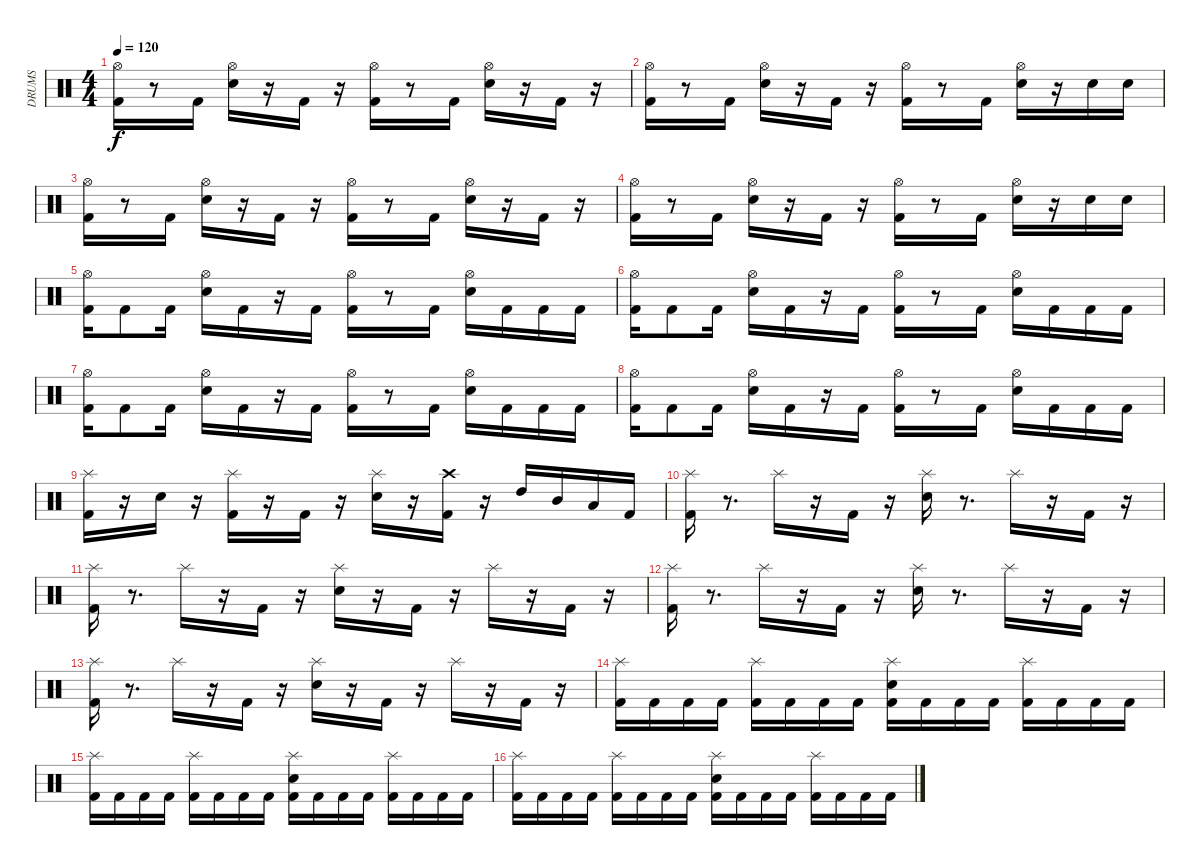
\track ("DRUMS" "DRUMS") {instrument percussion}
\staff {score}
\articulation defaults
\ts (4 4)
\tempo 120
\clef neutral
\ks c
("Hi-Hat (open)" "Kick (hit) 2").16{dy f} r.8 "Kick (hit) 2".16 ("Hi-Hat (open)" "Electric Snare (hit)").16 r.16 "Kick (hit) 2".16 r.16 ("Hi-Hat (open)" "Kick (hit) 2").16 r.8 "Kick (hit) 2".16 ("Hi-Hat (open)" "Electric Snare (hit)").16 r.16 "Kick (hit) 2".16 r.16 |
("Hi-Hat (open)" "Kick (hit) 2").16 r.8 "Kick (hit) 2".16 ("Hi-Hat (open)" "Electric Snare (hit)").16 r.16 "Kick (hit) 2".16 r.16 ("Hi-Hat (open)" "Kick (hit) 2").16 r.8 "Kick (hit) 2".16 ("Hi-Hat (open)" "Electric Snare (hit)").16 r.16 "Electric Snare (hit)".16 "Electric Snare (hit)".16 |
("Hi-Hat (open)" "Kick (hit) 2").16 r.8 "Kick (hit) 2".16 ("Hi-Hat (open)" "Electric Snare (hit)").16 r.16 "Kick (hit) 2".16 r.16 ("Hi-Hat (open)" "Kick (hit) 2").16 r.8 "Kick (hit) 2".16 ("Hi-Hat (open)" "Electric Snare (hit)").16 r.16 "Kick (hit) 2".16 r.16 |
("Hi-Hat (open)" "Kick (hit) 2").16 r.8 "Kick (hit) 2".16 ("Hi-Hat (open)" "Electric Snare (hit)").16 r.16 "Kick (hit) 2".16 r.16 ("Hi-Hat (open)" "Kick (hit) 2").16 r.8 "Kick (hit) 2".16 ("Hi-Hat (open)" "Electric Snare (hit)").16 r.16 "Electric Snare (hit)".16 "Electric Snare (hit)".16 |
("Hi-Hat (open)" "Kick (hit) 2").16 "Kick (hit) 2".8 "Kick (hit) 2".16 ("Hi-Hat (open)" "Electric Snare (hit)").16 "Kick (hit) 2".16 r.16 "Kick (hit) 2".16 ("Hi-Hat (open)" "Kick (hit) 2").16 r.8 "Kick (hit) 2".16 ("Hi-Hat (open)" "Electric Snare (hit)").16 "Kick (hit) 2".16 "Kick (hit) 2".16 "Kick (hit) 2".16 |
("Hi-Hat (open)" "Kick (hit) 2").16 "Kick (hit) 2".8 "Kick (hit) 2".16 ("Hi-Hat (open)" "Electric Snare (hit)").16 "Kick (hit) 2".16 r.16 "Kick (hit) 2".16 ("Hi-Hat (open)" "Kick (hit) 2").16 r.8 "Kick (hit) 2".16 ("Hi-Hat (open)" "Electric Snare (hit)").16 "Kick (hit) 2".16 "Kick (hit) 2".16 "Kick (hit) 2".16 |
("Hi-Hat (open)" "Kick (hit) 2").16 "Kick (hit) 2".8 "Kick (hit) 2".16 ("Hi-Hat (open)" "Electric Snare (hit)").16 "Kick (hit) 2".16 r.16 "Kick (hit) 2".16 ("Hi-Hat (open)" "Kick (hit) 2").16 r.8 "Kick (hit) 2".16 ("Hi-Hat (open)" "Electric Snare (hit)").16 "Kick (hit) 2".16 "Kick (hit) 2".16 "Kick (hit) 2".16 |
("Hi-Hat (open)" "Kick (hit) 2").16 "Kick (hit) 2".8 "Kick (hit) 2".16 ("Hi-Hat (open)" "Electric Snare (hit)").16 "Kick (hit) 2".16 r.16 "Kick (hit) 2".16 ("Hi-Hat (open)" "Kick (hit) 2").16 r.8 "Kick (hit) 2".16 ("Hi-Hat (open)" "Electric Snare (hit)").16 "Kick (hit) 2".16 "Kick (hit) 2".16 "Kick (hit) 2".16 |
("Splash (hit)" "Kick (hit) 2").16 r.16 "Electric Snare (hit)".16 r.16 ("Splash (hit)" "Kick (hit) 2").16 r.16 "Kick (hit) 2".16 r.16 ("Splash (hit)" "Electric Snare (hit)").16 r.16 ("Crash high (hit)" "Kick (hit) 2").16 r.16 "High Tom (hit)".16 "Mid Tom (hit)".16 "Low Tom (hit)".16 "Kick (hit) 2".16 |
("Splash (hit)" "Kick (hit) 2").16 r.8{d} "Splash (hit)".16 r.16 "Kick (hit) 2".16 r.16 ("Splash (hit)" "Electric Snare (hit)").16 r.8{d} "Splash (hit)".16 r.16 "Kick (hit) 2".16 r.16 |
("Kick (hit) 2" "Splash (hit)").16 r.8{d} "Splash (hit)".16 r.16 "Kick (hit) 2".16 r.16 ("Electric Snare (hit)" "Splash (hit)").16 r.16 "Kick (hit) 2".16 r.16 "Splash (hit)".16 r.16 "Kick (hit) 2".16 r.16 |
("Splash (hit)" "Kick (hit) 2").16 r.8{d} "Splash (hit)".16 r.16 "Kick (hit) 2".16 r.16 ("Splash (hit)" "Electric Snare (hit)").16 r.8{d} "Splash (hit)".16 r.16 "Kick (hit) 2".16 r.16 |
("Kick (hit) 2" "Splash (hit)").16 r.8{d} "Splash (hit)".16 r.16 "Kick (hit) 2".16 r.16 ("Electric Snare (hit)" "Splash (hit)").16 r.16 "Kick (hit) 2".16 r.16 "Splash (hit)".16 r.16 "Kick (hit) 2".16 r.16 |
("Splash (hit)" "Kick (hit) 2").16 "Kick (hit) 2".16 "Kick (hit) 2".16 "Kick (hit) 2".16 ("Splash (hit)" "Kick (hit) 2").16 "Kick (hit) 2".16 "Kick (hit) 2".16 "Kick (hit) 2".16 ("Splash (hit)" "Electric Snare (hit)" "Kick (hit) 2").16 "Kick (hit) 2".16 "Kick (hit) 2".16 "Kick (hit) 2".16 ("Splash (hit)" "Kick (hit) 2").16 "Kick (hit) 2".16 "Kick (hit) 2".16 "Kick (hit) 2".16 |
("Splash (hit)" "Kick (hit) 2").16 "Kick (hit) 2".16 "Kick (hit) 2".16 "Kick (hit) 2".16 ("Splash (hit)" "Kick (hit) 2").16 "Kick (hit) 2".16 "Kick (hit) 2".16 "Kick (hit) 2".16 ("Splash (hit)" "Electric Snare (hit)" "Kick (hit) 2").16 "Kick (hit) 2".16 "Kick (hit) 2".16 "Kick (hit) 2".16 ("Splash (hit)" "Kick (hit) 2").16 "Kick (hit) 2".16 "Kick (hit) 2".16 "Kick (hit) 2".16 |
("Splash (hit)" "Kick (hit) 2").16 "Kick (hit) 2".16 "Kick (hit) 2".16 "Kick (hit) 2".16 ("Splash (hit)" "Kick (hit) 2").16 "Kick (hit) 2".16 "Kick (hit) 2".16 "Kick (hit) 2".16 ("Splash (hit)" "Electric Snare (hit)" "Kick (hit) 2").16 "Kick (hit) 2".16 "Kick (hit) 2".16 "Kick (hit) 2".16 ("Splash (hit)" "Kick (hit) 2").16 "Kick (hit) 2".16 "Kick (hit) 2".16 "Kick (hit) 2".16
